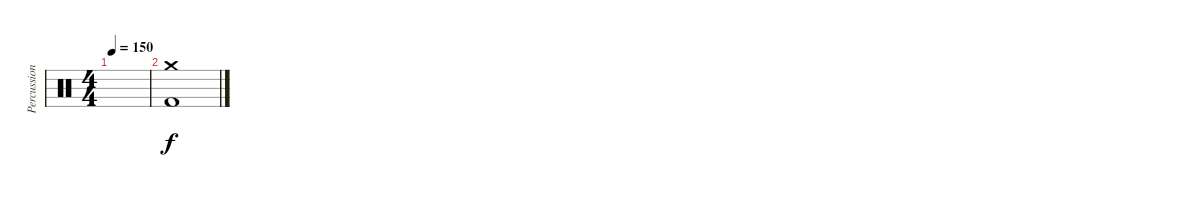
\track ("Percussion" "Percussion") {instrument percussion}
\staff {score}
\articulation defaults
\ts (4 4)
\tempo 150
\clef neutral
\ks c
|
("Kick (hit) 2" "Crash medium (hit)").1
